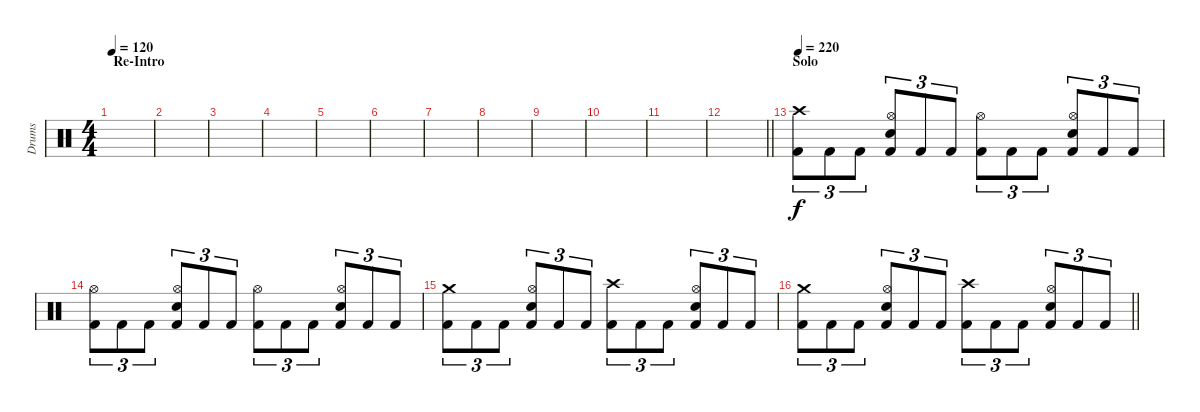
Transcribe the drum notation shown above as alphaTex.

\track ("Drums" "Drums") {instrument percussion}
\staff {score}
\articulation defaults
\ts (4 4)
\section ("" "Re-Intro")
\tempo 120
\clef neutral
\ks c
|
|
|
|
|
|
|
|
|
|
|
\barLineRight lightlight
|
\section ("" "Solo")
\tempo 220
("Crash high (hit)" "Kick (hit) 2").8{tu (3 2)} "Kick (hit) 2".8{tu (3 2)} "Kick (hit) 2".8{tu (3 2)} ("Hi-Hat (open)" "Snare (hit) 2" "Kick (hit) 2").8{tu (3 2)} "Kick (hit) 2".8{tu (3 2)} "Kick (hit) 2".8{tu (3 2)} ("Hi-Hat (open)" "Kick (hit) 2").8{tu (3 2)} "Kick (hit) 2".8{tu (3 2)} "Kick (hit) 2".8{tu (3 2)} ("Hi-Hat (open)" "Snare (hit) 2" "Kick (hit) 2").8{tu (3 2)} "Kick (hit) 2".8{tu (3 2)} "Kick (hit) 2".8{tu (3 2)} |
("Hi-Hat (open)" "Kick (hit) 2").8{tu (3 2)} "Kick (hit) 2".8{tu (3 2)} "Kick (hit) 2".8{tu (3 2)} ("Hi-Hat (open)" "Snare (hit) 2" "Kick (hit) 2").8{tu (3 2)} "Kick (hit) 2".8{tu (3 2)} "Kick (hit) 2".8{tu (3 2)} ("Hi-Hat (open)" "Kick (hit) 2").8{tu (3 2)} "Kick (hit) 2".8{tu (3 2)} "Kick (hit) 2".8{tu (3 2)} ("Hi-Hat (open)" "Snare (hit) 2" "Kick (hit) 2").8{tu (3 2)} "Kick (hit) 2".8{tu (3 2)} "Kick (hit) 2".8{tu (3 2)} |
("Crash medium (hit)" "Kick (hit) 2").8{tu (3 2)} "Kick (hit) 2".8{tu (3 2)} "Kick (hit) 2".8{tu (3 2)} ("Hi-Hat (open)" "Snare (hit) 2" "Kick (hit) 2").8{tu (3 2)} "Kick (hit) 2".8{tu (3 2)} "Kick (hit) 2".8{tu (3 2)} ("Crash high (hit)" "Kick (hit) 2").8{tu (3 2)} "Kick (hit) 2".8{tu (3 2)} "Kick (hit) 2".8{tu (3 2)} ("Hi-Hat (open)" "Snare (hit) 2" "Kick (hit) 2").8{tu (3 2)} "Kick (hit) 2".8{tu (3 2)} "Kick (hit) 2".8{tu (3 2)} |
\barLineRight lightlight
("Crash medium (hit)" "Kick (hit) 2").8{tu (3 2)} "Kick (hit) 2".8{tu (3 2)} "Kick (hit) 2".8{tu (3 2)} ("Hi-Hat (open)" "Snare (hit) 2" "Kick (hit) 2").8{tu (3 2)} "Kick (hit) 2".8{tu (3 2)} "Kick (hit) 2".8{tu (3 2)} ("Crash high (hit)" "Kick (hit) 2").8{tu (3 2)} "Kick (hit) 2".8{tu (3 2)} "Kick (hit) 2".8{tu (3 2)} ("Hi-Hat (open)" "Snare (hit) 2" "Kick (hit) 2").8{tu (3 2)} "Kick (hit) 2".8{tu (3 2)} "Kick (hit) 2".8{tu (3 2)}
